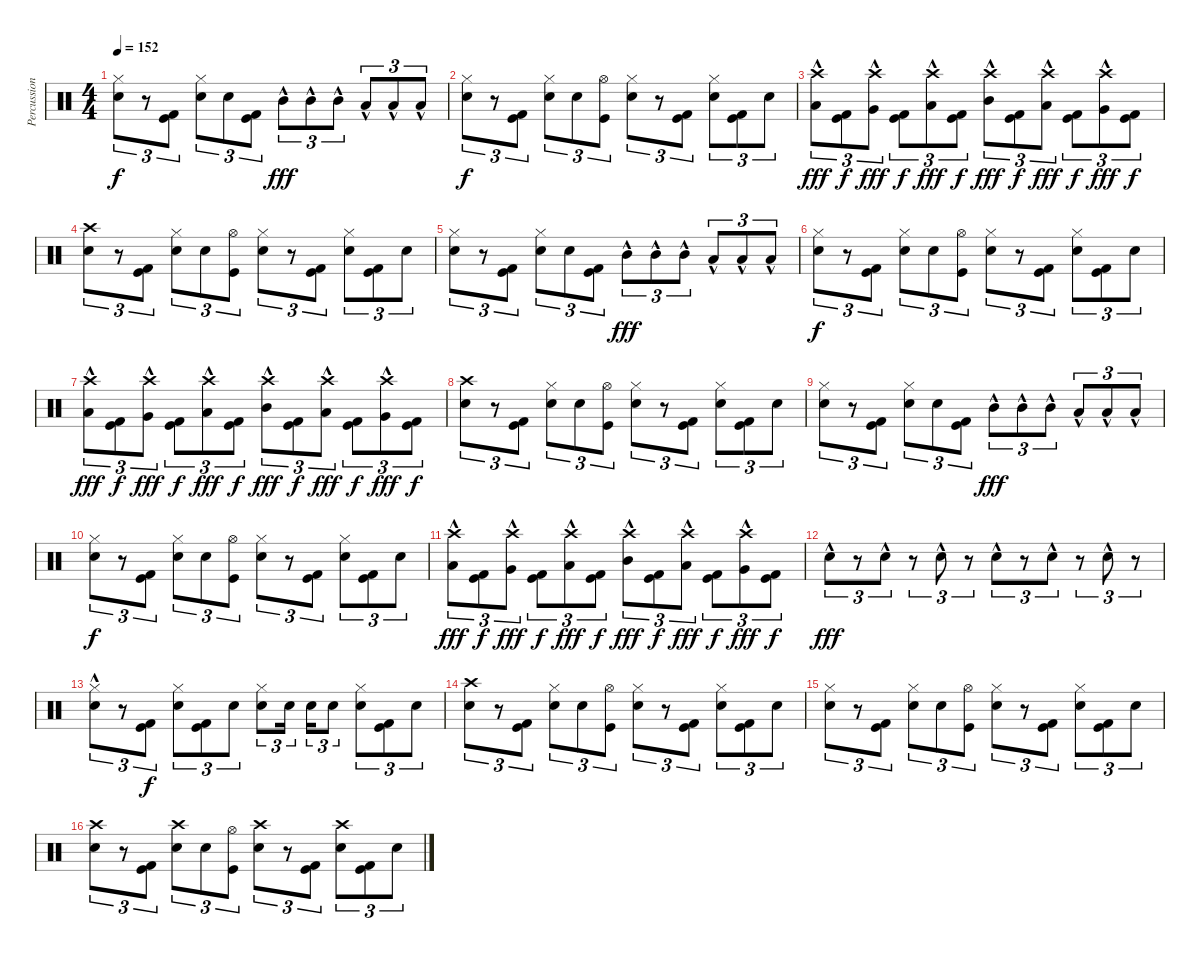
\track ("Percussion" "Percussion") {instrument percussion}
\staff {score}
\articulation defaults
\ts (4 4)
\tempo 152
\clef neutral
\ks c
("Hi-Hat (closed)" "Electric Snare (hit)").8{tu (3 2) dy f} r.8{tu (3 2)} ("Kick (hit) 2" "Kick (hit)").8{tu (3 2)} ("Hi-Hat (closed)" "Electric Snare (hit)").8{tu (3 2)} "Electric Snare (hit)".8{tu (3 2)} ("Kick (hit) 2" "Kick (hit)").8{tu (3 2)} "Mid Tom (hit)"{hac}.8{tu (3 2) dy fff} "Mid Tom (hit)"{hac}.8{tu (3 2)} "Mid Tom (hit)"{hac}.8{tu (3 2)} "Low Tom (hit)"{hac}.8{tu (3 2)} "Low Tom (hit)"{hac}.8{tu (3 2)} "Low Tom (hit)"{hac}.8{tu (3 2)} |
("Hi-Hat (closed)" "Electric Snare (hit)").8{tu (3 2) dy f} r.8{tu (3 2)} ("Kick (hit) 2" "Kick (hit)").8{tu (3 2)} ("Hi-Hat (closed)" "Electric Snare (hit)").8{tu (3 2)} "Electric Snare (hit)".8{tu (3 2)} ("Hi-Hat (open)" "Kick (hit)").8{tu (3 2)} ("Hi-Hat (closed)" "Electric Snare (hit)").8{tu (3 2)} r.8{tu (3 2)} ("Kick (hit) 2" "Kick (hit)").8{tu (3 2)} ("Hi-Hat (closed)" "Electric Snare (hit)").8{tu (3 2)} ("Kick (hit) 2" "Kick (hit)").8{tu (3 2)} "Electric Snare (hit)".8{tu (3 2)} |
("Crash high (hit)" "Low Floor Tom (hit)"{hac}).8{tu (3 2) dy fff} ("Kick (hit) 2" "Kick (hit)").8{tu (3 2) dy f} ("Crash high (hit)" "Very Low Tom (hit)"{hac}).8{tu (3 2) dy fff} ("Kick (hit) 2" "Kick (hit)").8{tu (3 2) dy f} ("Crash high (hit)" "Low Tom (hit)"{hac}).8{tu (3 2) dy fff} ("Kick (hit) 2" "Kick (hit)").8{tu (3 2) dy f} ("Crash high (hit)" "Mid Tom (hit)"{hac}).8{tu (3 2) dy fff} ("Kick (hit) 2" "Kick (hit)").8{tu (3 2) dy f} ("Crash high (hit)" "Low Tom (hit)"{hac}).8{tu (3 2) dy fff} ("Kick (hit) 2" "Kick (hit)").8{tu (3 2) dy f} ("Crash high (hit)" "Very Low Tom (hit)"{hac}).8{tu (3 2) dy fff} ("Kick (hit) 2" "Kick (hit)").8{tu (3 2) dy f} |
("Crash high (hit)" "Electric Snare (hit)").8{tu (3 2)} r.8{tu (3 2)} ("Kick (hit) 2" "Kick (hit)").8{tu (3 2)} ("Hi-Hat (closed)" "Electric Snare (hit)").8{tu (3 2)} "Electric Snare (hit)".8{tu (3 2)} ("Hi-Hat (open)" "Kick (hit)").8{tu (3 2)} ("Hi-Hat (closed)" "Electric Snare (hit)").8{tu (3 2)} r.8{tu (3 2)} ("Kick (hit) 2" "Kick (hit)").8{tu (3 2)} ("Hi-Hat (closed)" "Electric Snare (hit)").8{tu (3 2)} ("Kick (hit) 2" "Kick (hit)").8{tu (3 2)} "Electric Snare (hit)".8{tu (3 2)} |
("Hi-Hat (closed)" "Electric Snare (hit)").8{tu (3 2)} r.8{tu (3 2)} ("Kick (hit) 2" "Kick (hit)").8{tu (3 2)} ("Hi-Hat (closed)" "Electric Snare (hit)").8{tu (3 2)} "Electric Snare (hit)".8{tu (3 2)} ("Kick (hit) 2" "Kick (hit)").8{tu (3 2)} "Mid Tom (hit)"{hac}.8{tu (3 2) dy fff} "Mid Tom (hit)"{hac}.8{tu (3 2)} "Mid Tom (hit)"{hac}.8{tu (3 2)} "Low Tom (hit)"{hac}.8{tu (3 2)} "Low Tom (hit)"{hac}.8{tu (3 2)} "Low Tom (hit)"{hac}.8{tu (3 2)} |
("Hi-Hat (closed)" "Electric Snare (hit)").8{tu (3 2) dy f} r.8{tu (3 2)} ("Kick (hit) 2" "Kick (hit)").8{tu (3 2)} ("Hi-Hat (closed)" "Electric Snare (hit)").8{tu (3 2)} "Electric Snare (hit)".8{tu (3 2)} ("Hi-Hat (open)" "Kick (hit)").8{tu (3 2)} ("Hi-Hat (closed)" "Electric Snare (hit)").8{tu (3 2)} r.8{tu (3 2)} ("Kick (hit) 2" "Kick (hit)").8{tu (3 2)} ("Hi-Hat (closed)" "Electric Snare (hit)").8{tu (3 2)} ("Kick (hit) 2" "Kick (hit)").8{tu (3 2)} "Electric Snare (hit)".8{tu (3 2)} |
("Crash high (hit)" "Low Floor Tom (hit)"{hac}).8{tu (3 2) dy fff} ("Kick (hit) 2" "Kick (hit)").8{tu (3 2) dy f} ("Crash high (hit)" "Very Low Tom (hit)"{hac}).8{tu (3 2) dy fff} ("Kick (hit) 2" "Kick (hit)").8{tu (3 2) dy f} ("Crash high (hit)" "Low Tom (hit)"{hac}).8{tu (3 2) dy fff} ("Kick (hit) 2" "Kick (hit)").8{tu (3 2) dy f} ("Crash high (hit)" "Mid Tom (hit)"{hac}).8{tu (3 2) dy fff} ("Kick (hit) 2" "Kick (hit)").8{tu (3 2) dy f} ("Crash high (hit)" "Low Tom (hit)"{hac}).8{tu (3 2) dy fff} ("Kick (hit) 2" "Kick (hit)").8{tu (3 2) dy f} ("Crash high (hit)" "Very Low Tom (hit)"{hac}).8{tu (3 2) dy fff} ("Kick (hit) 2" "Kick (hit)").8{tu (3 2) dy f} |
("Crash high (hit)" "Electric Snare (hit)").8{tu (3 2)} r.8{tu (3 2)} ("Kick (hit) 2" "Kick (hit)").8{tu (3 2)} ("Hi-Hat (closed)" "Electric Snare (hit)").8{tu (3 2)} "Electric Snare (hit)".8{tu (3 2)} ("Hi-Hat (open)" "Kick (hit)").8{tu (3 2)} ("Hi-Hat (closed)" "Electric Snare (hit)").8{tu (3 2)} r.8{tu (3 2)} ("Kick (hit) 2" "Kick (hit)").8{tu (3 2)} ("Hi-Hat (closed)" "Electric Snare (hit)").8{tu (3 2)} ("Kick (hit) 2" "Kick (hit)").8{tu (3 2)} "Electric Snare (hit)".8{tu (3 2)} |
("Hi-Hat (closed)" "Electric Snare (hit)").8{tu (3 2)} r.8{tu (3 2)} ("Kick (hit) 2" "Kick (hit)").8{tu (3 2)} ("Hi-Hat (closed)" "Electric Snare (hit)").8{tu (3 2)} "Electric Snare (hit)".8{tu (3 2)} ("Kick (hit) 2" "Kick (hit)").8{tu (3 2)} "Mid Tom (hit)"{hac}.8{tu (3 2) dy fff} "Mid Tom (hit)"{hac}.8{tu (3 2)} "Mid Tom (hit)"{hac}.8{tu (3 2)} "Low Tom (hit)"{hac}.8{tu (3 2)} "Low Tom (hit)"{hac}.8{tu (3 2)} "Low Tom (hit)"{hac}.8{tu (3 2)} |
("Hi-Hat (closed)" "Electric Snare (hit)").8{tu (3 2) dy f} r.8{tu (3 2)} ("Kick (hit) 2" "Kick (hit)").8{tu (3 2)} ("Hi-Hat (closed)" "Electric Snare (hit)").8{tu (3 2)} "Electric Snare (hit)".8{tu (3 2)} ("Hi-Hat (open)" "Kick (hit)").8{tu (3 2)} ("Hi-Hat (closed)" "Electric Snare (hit)").8{tu (3 2)} r.8{tu (3 2)} ("Kick (hit) 2" "Kick (hit)").8{tu (3 2)} ("Hi-Hat (closed)" "Electric Snare (hit)").8{tu (3 2)} ("Kick (hit) 2" "Kick (hit)").8{tu (3 2)} "Electric Snare (hit)".8{tu (3 2)} |
("Crash high (hit)" "Low Floor Tom (hit)"{hac}).8{tu (3 2) dy fff} ("Kick (hit) 2" "Kick (hit)").8{tu (3 2) dy f} ("Crash high (hit)" "Very Low Tom (hit)"{hac}).8{tu (3 2) dy fff} ("Kick (hit) 2" "Kick (hit)").8{tu (3 2) dy f} ("Crash high (hit)" "Low Tom (hit)"{hac}).8{tu (3 2) dy fff} ("Kick (hit) 2" "Kick (hit)").8{tu (3 2) dy f} ("Crash high (hit)" "Mid Tom (hit)"{hac}).8{tu (3 2) dy fff} ("Kick (hit) 2" "Kick (hit)").8{tu (3 2) dy f} ("Crash high (hit)" "Low Tom (hit)"{hac}).8{tu (3 2) dy fff} ("Kick (hit) 2" "Kick (hit)").8{tu (3 2) dy f} ("Crash high (hit)" "Very Low Tom (hit)"{hac}).8{tu (3 2) dy fff} ("Kick (hit) 2" "Kick (hit)").8{tu (3 2) dy f} |
"Electric Snare (hit)"{hac}.8{tu (3 2) dy fff} r.8{tu (3 2)} "Electric Snare (hit)"{hac}.8{tu (3 2)} r.8{tu (3 2)} "Electric Snare (hit)"{hac}.8{tu (3 2)} r.8{tu (3 2)} "Electric Snare (hit)"{hac}.8{tu (3 2)} r.8{tu (3 2)} "Electric Snare (hit)"{hac}.8{tu (3 2)} r.8{tu (3 2)} "Electric Snare (hit)"{hac}.8{tu (3 2)} r.8{tu (3 2)} |
("Hi-Hat (closed)"{hac} "Electric Snare (hit)"{hac}).8{tu (3 2)} r.8{tu (3 2)} ("Kick (hit) 2" "Kick (hit)").8{tu (3 2) dy f} ("Hi-Hat (closed)" "Electric Snare (hit)").8{tu (3 2)} ("Kick (hit) 2" "Kick (hit)").8{tu (3 2)} "Electric Snare (hit)".8{tu (3 2)} ("Hi-Hat (closed)" "Electric Snare (hit)").8{tu (3 2)} "Electric Snare (hit)".16{tu (3 2) beam splitsecondary} "Electric Snare (hit)".16{tu (3 2)} "Electric Snare (hit)".8{tu (3 2)} ("Hi-Hat (closed)" "Electric Snare (hit)").8{tu (3 2)} ("Kick (hit) 2" "Kick (hit)").8{tu (3 2)} "Electric Snare (hit)".8{tu (3 2)} |
("Crash high (hit)" "Electric Snare (hit)").8{tu (3 2)} r.8{tu (3 2)} ("Kick (hit) 2" "Kick (hit)").8{tu (3 2)} ("Hi-Hat (closed)" "Electric Snare (hit)").8{tu (3 2)} "Electric Snare (hit)".8{tu (3 2)} ("Hi-Hat (open)" "Kick (hit)").8{tu (3 2)} ("Hi-Hat (closed)" "Electric Snare (hit)").8{tu (3 2)} r.8{tu (3 2)} ("Kick (hit) 2" "Kick (hit)").8{tu (3 2)} ("Hi-Hat (closed)" "Electric Snare (hit)").8{tu (3 2)} ("Kick (hit) 2" "Kick (hit)").8{tu (3 2)} "Electric Snare (hit)".8{tu (3 2)} |
("Hi-Hat (closed)" "Electric Snare (hit)").8{tu (3 2)} r.8{tu (3 2)} ("Kick (hit) 2" "Kick (hit)").8{tu (3 2)} ("Hi-Hat (closed)" "Electric Snare (hit)").8{tu (3 2)} "Electric Snare (hit)".8{tu (3 2)} ("Hi-Hat (open)" "Kick (hit)").8{tu (3 2)} ("Hi-Hat (closed)" "Electric Snare (hit)").8{tu (3 2)} r.8{tu (3 2)} ("Kick (hit) 2" "Kick (hit)").8{tu (3 2)} ("Hi-Hat (closed)" "Electric Snare (hit)").8{tu (3 2)} ("Kick (hit) 2" "Kick (hit)").8{tu (3 2)} "Electric Snare (hit)".8{tu (3 2)} |
("Crash high (hit)" "Electric Snare (hit)").8{tu (3 2)} r.8{tu (3 2)} ("Kick (hit) 2" "Kick (hit)").8{tu (3 2)} ("Crash high (hit)" "Electric Snare (hit)").8{tu (3 2)} "Electric Snare (hit)".8{tu (3 2)} ("Hi-Hat (open)" "Kick (hit)").8{tu (3 2)} ("Crash high (hit)" "Electric Snare (hit)").8{tu (3 2)} r.8{tu (3 2)} ("Kick (hit) 2" "Kick (hit)").8{tu (3 2)} ("Crash high (hit)" "Electric Snare (hit)").8{tu (3 2)} ("Kick (hit) 2" "Kick (hit)").8{tu (3 2)} "Electric Snare (hit)".8{tu (3 2)}
